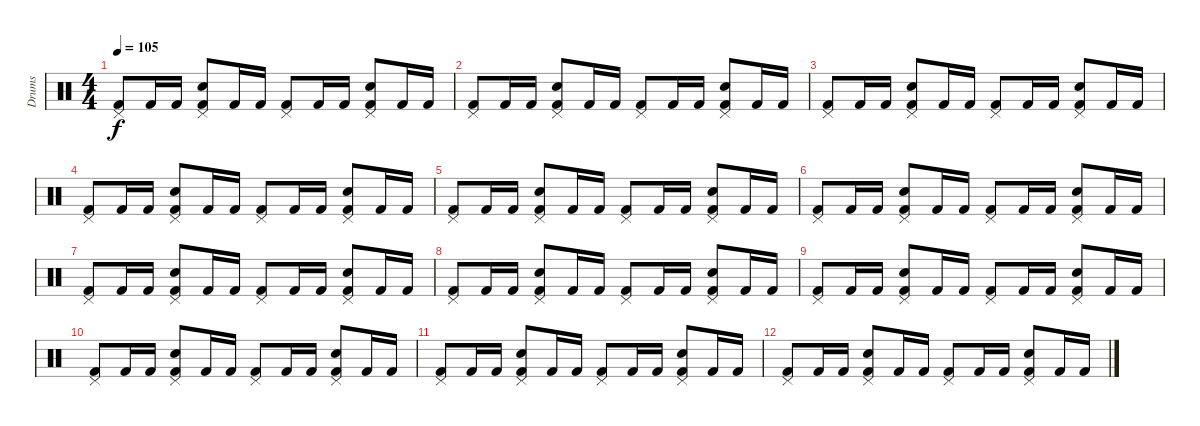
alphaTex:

\track ("Drums" "Drums") {instrument percussion}
\staff {score}
\articulation defaults
\ts (4 4)
\tempo 105
\clef neutral
\ks c
("Pedal Hi-Hat (hit)" "Kick (hit) 2").8{dy f} "Kick (hit) 2".16 "Kick (hit) 2".16 ("Pedal Hi-Hat (hit)" "Electric Snare (hit)" "Kick (hit) 2").8 "Kick (hit) 2".16 "Kick (hit) 2".16 ("Pedal Hi-Hat (hit)" "Kick (hit) 2").8 "Kick (hit) 2".16 "Kick (hit) 2".16 ("Pedal Hi-Hat (hit)" "Electric Snare (hit)" "Kick (hit) 2").8 "Kick (hit) 2".16 "Kick (hit) 2".16 |
("Pedal Hi-Hat (hit)" "Kick (hit) 2").8 "Kick (hit) 2".16 "Kick (hit) 2".16 ("Pedal Hi-Hat (hit)" "Electric Snare (hit)" "Kick (hit) 2").8 "Kick (hit) 2".16 "Kick (hit) 2".16 ("Pedal Hi-Hat (hit)" "Kick (hit) 2").8 "Kick (hit) 2".16 "Kick (hit) 2".16 ("Pedal Hi-Hat (hit)" "Electric Snare (hit)" "Kick (hit) 2").8 "Kick (hit) 2".16 "Kick (hit) 2".16 |
("Pedal Hi-Hat (hit)" "Kick (hit) 2").8 "Kick (hit) 2".16 "Kick (hit) 2".16 ("Pedal Hi-Hat (hit)" "Electric Snare (hit)" "Kick (hit) 2").8 "Kick (hit) 2".16 "Kick (hit) 2".16 ("Pedal Hi-Hat (hit)" "Kick (hit) 2").8 "Kick (hit) 2".16 "Kick (hit) 2".16 ("Pedal Hi-Hat (hit)" "Electric Snare (hit)" "Kick (hit) 2").8 "Kick (hit) 2".16 "Kick (hit) 2".16 |
("Pedal Hi-Hat (hit)" "Kick (hit) 2").8 "Kick (hit) 2".16 "Kick (hit) 2".16 ("Pedal Hi-Hat (hit)" "Electric Snare (hit)" "Kick (hit) 2").8 "Kick (hit) 2".16 "Kick (hit) 2".16 ("Pedal Hi-Hat (hit)" "Kick (hit) 2").8 "Kick (hit) 2".16 "Kick (hit) 2".16 ("Pedal Hi-Hat (hit)" "Electric Snare (hit)" "Kick (hit) 2").8 "Kick (hit) 2".16 "Kick (hit) 2".16 |
("Pedal Hi-Hat (hit)" "Kick (hit) 2").8 "Kick (hit) 2".16 "Kick (hit) 2".16 ("Pedal Hi-Hat (hit)" "Electric Snare (hit)" "Kick (hit) 2").8 "Kick (hit) 2".16 "Kick (hit) 2".16 ("Pedal Hi-Hat (hit)" "Kick (hit) 2").8 "Kick (hit) 2".16 "Kick (hit) 2".16 ("Pedal Hi-Hat (hit)" "Electric Snare (hit)" "Kick (hit) 2").8 "Kick (hit) 2".16 "Kick (hit) 2".16 |
("Pedal Hi-Hat (hit)" "Kick (hit) 2").8 "Kick (hit) 2".16 "Kick (hit) 2".16 ("Pedal Hi-Hat (hit)" "Electric Snare (hit)" "Kick (hit) 2").8 "Kick (hit) 2".16 "Kick (hit) 2".16 ("Pedal Hi-Hat (hit)" "Kick (hit) 2").8 "Kick (hit) 2".16 "Kick (hit) 2".16 ("Pedal Hi-Hat (hit)" "Electric Snare (hit)" "Kick (hit) 2").8 "Kick (hit) 2".16 "Kick (hit) 2".16 |
("Pedal Hi-Hat (hit)" "Kick (hit) 2").8 "Kick (hit) 2".16 "Kick (hit) 2".16 ("Pedal Hi-Hat (hit)" "Electric Snare (hit)" "Kick (hit) 2").8 "Kick (hit) 2".16 "Kick (hit) 2".16 ("Pedal Hi-Hat (hit)" "Kick (hit) 2").8 "Kick (hit) 2".16 "Kick (hit) 2".16 ("Pedal Hi-Hat (hit)" "Electric Snare (hit)" "Kick (hit) 2").8 "Kick (hit) 2".16 "Kick (hit) 2".16 |
("Pedal Hi-Hat (hit)" "Kick (hit) 2").8 "Kick (hit) 2".16 "Kick (hit) 2".16 ("Pedal Hi-Hat (hit)" "Electric Snare (hit)" "Kick (hit) 2").8 "Kick (hit) 2".16 "Kick (hit) 2".16 ("Pedal Hi-Hat (hit)" "Kick (hit) 2").8 "Kick (hit) 2".16 "Kick (hit) 2".16 ("Pedal Hi-Hat (hit)" "Electric Snare (hit)" "Kick (hit) 2").8 "Kick (hit) 2".16 "Kick (hit) 2".16 |
("Pedal Hi-Hat (hit)" "Kick (hit) 2").8 "Kick (hit) 2".16 "Kick (hit) 2".16 ("Pedal Hi-Hat (hit)" "Electric Snare (hit)" "Kick (hit) 2").8 "Kick (hit) 2".16 "Kick (hit) 2".16 ("Pedal Hi-Hat (hit)" "Kick (hit) 2").8 "Kick (hit) 2".16 "Kick (hit) 2".16 ("Pedal Hi-Hat (hit)" "Electric Snare (hit)" "Kick (hit) 2").8 "Kick (hit) 2".16 "Kick (hit) 2".16 |
("Pedal Hi-Hat (hit)" "Kick (hit) 2").8 "Kick (hit) 2".16 "Kick (hit) 2".16 ("Pedal Hi-Hat (hit)" "Electric Snare (hit)" "Kick (hit) 2").8 "Kick (hit) 2".16 "Kick (hit) 2".16 ("Pedal Hi-Hat (hit)" "Kick (hit) 2").8 "Kick (hit) 2".16 "Kick (hit) 2".16 ("Pedal Hi-Hat (hit)" "Electric Snare (hit)" "Kick (hit) 2").8 "Kick (hit) 2".16 "Kick (hit) 2".16 |
("Pedal Hi-Hat (hit)" "Kick (hit) 2").8 "Kick (hit) 2".16 "Kick (hit) 2".16 ("Pedal Hi-Hat (hit)" "Electric Snare (hit)" "Kick (hit) 2").8 "Kick (hit) 2".16 "Kick (hit) 2".16 ("Pedal Hi-Hat (hit)" "Kick (hit) 2").8 "Kick (hit) 2".16 "Kick (hit) 2".16 ("Pedal Hi-Hat (hit)" "Electric Snare (hit)" "Kick (hit) 2").8 "Kick (hit) 2".16 "Kick (hit) 2".16 |
("Pedal Hi-Hat (hit)" "Kick (hit) 2").8 "Kick (hit) 2".16 "Kick (hit) 2".16 ("Pedal Hi-Hat (hit)" "Electric Snare (hit)" "Kick (hit) 2").8 "Kick (hit) 2".16 "Kick (hit) 2".16 ("Pedal Hi-Hat (hit)" "Kick (hit) 2").8 "Kick (hit) 2".16 "Kick (hit) 2".16 ("Pedal Hi-Hat (hit)" "Electric Snare (hit)" "Kick (hit) 2").8 "Kick (hit) 2".16 "Kick (hit) 2".16
